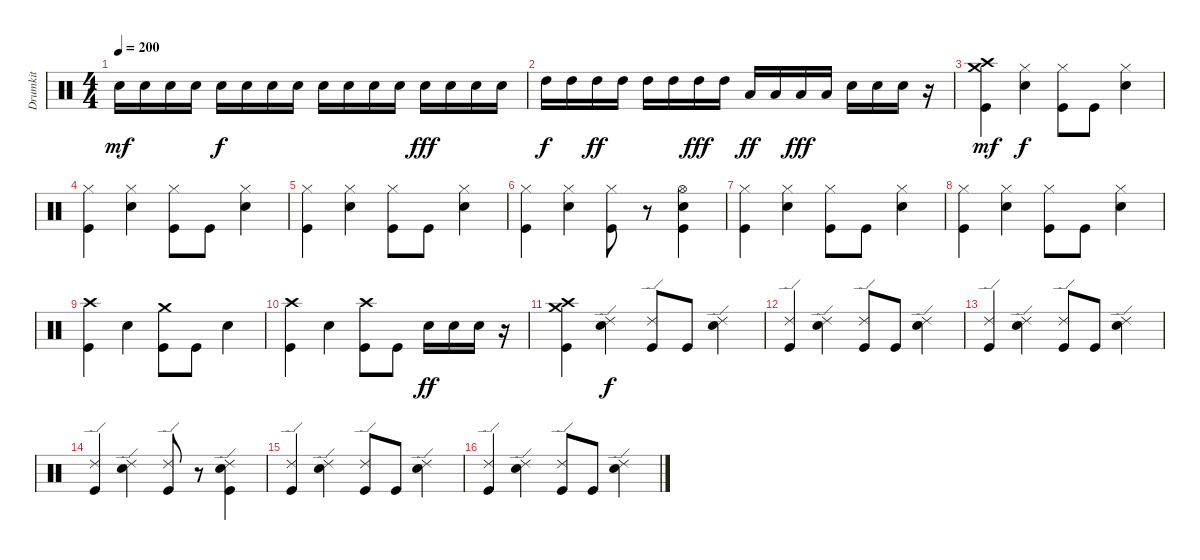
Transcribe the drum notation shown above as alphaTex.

\track ("Drumkit" "Drumkit") {instrument percussion}
\staff {score}
\articulation defaults
\ts (4 4)
\tempo 200
\clef neutral
\ks c "Snare (hit) 2".16{dy mf} "Snare (hit) 2".16 "Snare (hit) 2".16 "Snare (hit) 2".16 "Snare (hit) 2".16{dy f} "Snare (hit) 2".16 "Snare (hit) 2".16 "Snare (hit) 2".16 "Snare (hit) 2".16 "Snare (hit) 2".16 "Snare (hit) 2".16 "Snare (hit) 2".16 "Snare (hit) 2".16{dy fff} "Snare (hit) 2".16 "Snare (hit) 2".16 "Snare (hit) 2".16
|
"High Tom (hit)".16{dy f} "High Tom (hit)".16 "High Tom (hit)".16{dy ff} "High Tom (hit)".16 "High Tom (hit)".16 "High Tom (hit)".16 "High Tom (hit)".16{dy fff} "High Tom (hit)".16 "Low Tom (hit)".16{dy ff} "Low Tom (hit)".16 "Low Tom (hit)".16{dy fff} "Low Tom (hit)".16 "Snare (hit) 2".16 "Snare (hit) 2".16 "Snare (hit) 2".16 r.16 |
("Crash high (hit)" "Crash medium (hit)" "Kick (hit)").4{dy mf} ("Hi-Hat (closed)" "Snare (hit) 2").4{dy f} ("Hi-Hat (closed)" "Kick (hit)").8 "Kick (hit)".8 ("Hi-Hat (closed)" "Snare (hit) 2").4 |
("Hi-Hat (closed)" "Kick (hit)").4 ("Hi-Hat (closed)" "Snare (hit) 2").4 ("Hi-Hat (closed)" "Kick (hit)").8 "Kick (hit)".8 ("Hi-Hat (closed)" "Snare (hit) 2").4 |
("Hi-Hat (closed)" "Kick (hit)").4 ("Hi-Hat (closed)" "Snare (hit) 2").4 ("Hi-Hat (closed)" "Kick (hit)").8 "Kick (hit)".8 ("Hi-Hat (closed)" "Snare (hit) 2").4 |
("Hi-Hat (closed)" "Kick (hit)").4 ("Hi-Hat (closed)" "Snare (hit) 2").4 ("Hi-Hat (closed)" "Kick (hit)").8 r.8 ("Hi-Hat (open)" "Snare (hit) 2" "Kick (hit)").4 |
("Hi-Hat (closed)" "Kick (hit)").4 ("Hi-Hat (closed)" "Snare (hit) 2").4 ("Hi-Hat (closed)" "Kick (hit)").8 "Kick (hit)".8 ("Hi-Hat (closed)" "Snare (hit) 2").4 |
("Hi-Hat (closed)" "Kick (hit)").4 ("Hi-Hat (closed)" "Snare (hit) 2").4 ("Hi-Hat (closed)" "Kick (hit)").8 "Kick (hit)".8 ("Hi-Hat (closed)" "Snare (hit) 2").4 |
("Crash high (hit)" "Kick (hit)").4 "Snare (hit) 2".4 ("Crash medium (hit)" "Kick (hit)").8 "Kick (hit)".8 "Snare (hit) 2".4 |
("Crash high (hit)" "Kick (hit)").4 "Snare (hit) 2".4 ("Crash high (hit)" "Kick (hit)").8 "Kick (hit)".8 "Snare (hit) 2".16{dy ff} "Snare (hit) 2".16 "Snare (hit) 2".16 r.16 |
("Crash high (hit)" "Crash medium (hit)" "Kick (hit)").4 ("Ride (edge) 2" "Snare (hit) 2").4{dy f} ("Ride (edge) 2" "Kick (hit)").8 "Kick (hit)".8 ("Ride (edge) 2" "Snare (hit) 2").4 |
("Ride (edge) 2" "Kick (hit)").4 ("Ride (edge) 2" "Snare (hit) 2").4 ("Ride (edge) 2" "Kick (hit)").8 "Kick (hit)".8 ("Ride (edge) 2" "Snare (hit) 2").4 |
("Ride (edge) 2" "Kick (hit)").4 ("Ride (edge) 2" "Snare (hit) 2").4 ("Ride (edge) 2" "Kick (hit)").8 "Kick (hit)".8 ("Ride (edge) 2" "Snare (hit) 2").4 |
("Ride (edge) 2" "Kick (hit)").4 ("Ride (edge) 2" "Snare (hit) 2").4 ("Ride (edge) 2" "Kick (hit)").8 r.8 ("Ride (edge) 2" "Snare (hit) 2" "Kick (hit)").4 |
("Ride (edge) 2" "Kick (hit)").4 ("Ride (edge) 2" "Snare (hit) 2").4 ("Ride (edge) 2" "Kick (hit)").8 "Kick (hit)".8 ("Ride (edge) 2" "Snare (hit) 2").4 |
("Ride (edge) 2" "Kick (hit)").4 ("Ride (edge) 2" "Snare (hit) 2").4 ("Ride (edge) 2" "Kick (hit)").8 "Kick (hit)".8 ("Ride (edge) 2" "Snare (hit) 2").4
